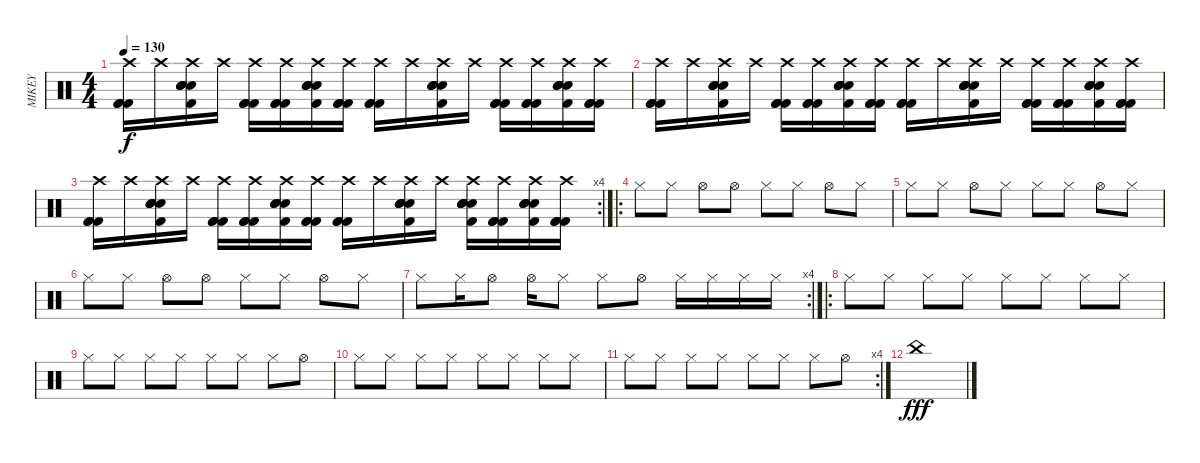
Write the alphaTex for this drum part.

\track ("MIKEY" "MIKEY") {instrument percussion}
\staff {score}
\articulation defaults
\ts (4 4)
\tempo 130
\clef neutral
\ks c
("Crash high (hit)" "Kick (hit) 2" "Kick (hit) 2" "Kick (hit) 2").16{dy f} "Crash high (hit)".16 ("Crash high (hit)" "Snare (hit) 2" "Kick (hit) 2" "Electric Snare (hit)" "Electric Snare (hit)" "Electric Snare (hit)").16 "Crash high (hit)".16 ("Crash high (hit)" "Kick (hit) 2" "Kick (hit) 2" "Kick (hit) 2").16 ("Crash high (hit)" "Kick (hit) 2" "Kick (hit) 2" "Kick (hit) 2").16 ("Crash high (hit)" "Snare (hit) 2" "Kick (hit) 2" "Electric Snare (hit)" "Electric Snare (hit)" "Electric Snare (hit)").16 ("Crash high (hit)" "Kick (hit) 2" "Kick (hit) 2" "Kick (hit) 2").16 ("Crash high (hit)" "Kick (hit) 2" "Kick (hit) 2" "Kick (hit) 2").16 "Crash high (hit)".16 ("Crash high (hit)" "Snare (hit) 2" "Kick (hit) 2" "Electric Snare (hit)" "Electric Snare (hit)" "Electric Snare (hit)").16 "Crash high (hit)".16 ("Crash high (hit)" "Kick (hit) 2" "Kick (hit) 2" "Kick (hit) 2").16 ("Crash high (hit)" "Kick (hit) 2" "Kick (hit) 2" "Kick (hit) 2").16 ("Crash high (hit)" "Snare (hit) 2" "Kick (hit) 2" "Electric Snare (hit)" "Electric Snare (hit)" "Electric Snare (hit)").16 ("Crash high (hit)" "Kick (hit) 2" "Kick (hit) 2" "Kick (hit) 2").16 |
("Crash high (hit)" "Kick (hit) 2" "Kick (hit) 2" "Kick (hit) 2").16 "Crash high (hit)".16 ("Crash high (hit)" "Snare (hit) 2" "Kick (hit) 2" "Electric Snare (hit)" "Electric Snare (hit)" "Electric Snare (hit)").16 "Crash high (hit)".16 ("Crash high (hit)" "Kick (hit) 2" "Kick (hit) 2" "Kick (hit) 2").16 ("Crash high (hit)" "Kick (hit) 2" "Kick (hit) 2" "Kick (hit) 2").16 ("Crash high (hit)" "Snare (hit) 2" "Kick (hit) 2" "Electric Snare (hit)" "Electric Snare (hit)" "Electric Snare (hit)").16 ("Crash high (hit)" "Kick (hit) 2" "Kick (hit) 2" "Kick (hit) 2").16 ("Crash high (hit)" "Kick (hit) 2" "Kick (hit) 2" "Kick (hit) 2").16 "Crash high (hit)".16 ("Crash high (hit)" "Snare (hit) 2" "Kick (hit) 2" "Electric Snare (hit)" "Electric Snare (hit)" "Electric Snare (hit)").16 "Crash high (hit)".16 ("Crash high (hit)" "Kick (hit) 2" "Kick (hit) 2" "Kick (hit) 2").16 ("Crash high (hit)" "Kick (hit) 2" "Kick (hit) 2" "Kick (hit) 2").16 ("Crash high (hit)" "Snare (hit) 2" "Kick (hit) 2" "Electric Snare (hit)" "Electric Snare (hit)" "Electric Snare (hit)").16 ("Crash high (hit)" "Kick (hit) 2" "Kick (hit) 2" "Kick (hit) 2").16 |
\rc 4
("Crash high (hit)" "Kick (hit) 2" "Kick (hit) 2" "Kick (hit) 2").16 "Crash high (hit)".16 ("Crash high (hit)" "Snare (hit) 2" "Kick (hit) 2" "Electric Snare (hit)" "Electric Snare (hit)" "Electric Snare (hit)").16 "Crash high (hit)".16 ("Crash high (hit)" "Kick (hit) 2" "Kick (hit) 2" "Kick (hit) 2").16 ("Crash high (hit)" "Kick (hit) 2" "Kick (hit) 2" "Kick (hit) 2").16 ("Crash high (hit)" "Snare (hit) 2" "Kick (hit) 2" "Electric Snare (hit)" "Electric Snare (hit)" "Electric Snare (hit)").16 ("Crash high (hit)" "Kick (hit) 2" "Kick (hit) 2" "Kick (hit) 2").16 ("Crash high (hit)" "Kick (hit) 2" "Kick (hit) 2" "Kick (hit) 2").16 "Crash high (hit)".16 ("Crash high (hit)" "Snare (hit) 2" "Kick (hit) 2" "Electric Snare (hit)" "Electric Snare (hit)" "Electric Snare (hit)").16 "Crash high (hit)".16 ("Crash high (hit)" "Snare (hit) 2" "Kick (hit) 2" "Electric Snare (hit)" "Electric Snare (hit)" "Electric Snare (hit)").16 ("Crash high (hit)" "Kick (hit) 2" "Kick (hit) 2" "Kick (hit) 2").16 ("Crash high (hit)" "Snare (hit) 2" "Kick (hit) 2" "Electric Snare (hit)" "Electric Snare (hit)" "Electric Snare (hit)").16 ("Crash high (hit)" "Kick (hit) 2" "Kick (hit) 2" "Kick (hit) 2").16 |
\ro "Hi-Hat (closed)".8 "Hi-Hat (closed)".8 "Hi-Hat (open)".8 "Hi-Hat (open)".8 "Hi-Hat (closed)".8 "Hi-Hat (closed)".8 "Hi-Hat (open)".8 "Hi-Hat (closed)".8
|
"Hi-Hat (closed)".8 "Hi-Hat (closed)".8 "Hi-Hat (open)".8 "Hi-Hat (closed)".8 "Hi-Hat (closed)".8 "Hi-Hat (closed)".8 "Hi-Hat (open)".8 "Hi-Hat (closed)".8 |
"Hi-Hat (closed)".8 "Hi-Hat (closed)".8 "Hi-Hat (open)".8 "Hi-Hat (open)".8 "Hi-Hat (closed)".8 "Hi-Hat (closed)".8 "Hi-Hat (open)".8 "Hi-Hat (closed)".8 |
\rc 4 "Hi-Hat (closed)".8 "Hi-Hat (closed)".16 "Hi-Hat (open)".8 "Hi-Hat (open)".16 "Hi-Hat (closed)".8 "Hi-Hat (closed)".8 "Hi-Hat (open)".8 "Hi-Hat (closed)".16 "Hi-Hat (closed)".16 "Hi-Hat (closed)".16 "Hi-Hat (closed)".16
|
\ro "Hi-Hat (closed)".8 "Hi-Hat (closed)".8 "Hi-Hat (closed)".8 "Hi-Hat (closed)".8 "Hi-Hat (closed)".8 "Hi-Hat (closed)".8 "Hi-Hat (closed)".8 "Hi-Hat (closed)".8
|
"Hi-Hat (closed)".8 "Hi-Hat (closed)".8 "Hi-Hat (closed)".8 "Hi-Hat (closed)".8 "Hi-Hat (closed)".8 "Hi-Hat (closed)".8 "Hi-Hat (closed)".8 "Hi-Hat (open)".8 |
"Hi-Hat (closed)".8 "Hi-Hat (closed)".8 "Hi-Hat (closed)".8 "Hi-Hat (closed)".8 "Hi-Hat (closed)".8 "Hi-Hat (closed)".8 "Hi-Hat (closed)".8 "Hi-Hat (closed)".8 |
\rc 4 "Hi-Hat (closed)".8 "Hi-Hat (closed)".8 "Hi-Hat (closed)".8 "Hi-Hat (closed)".8 "Hi-Hat (closed)".8 "Hi-Hat (closed)".8 "Hi-Hat (closed)".8 "Hi-Hat (open)".8
|
"China (hit)".1{dy fff}
